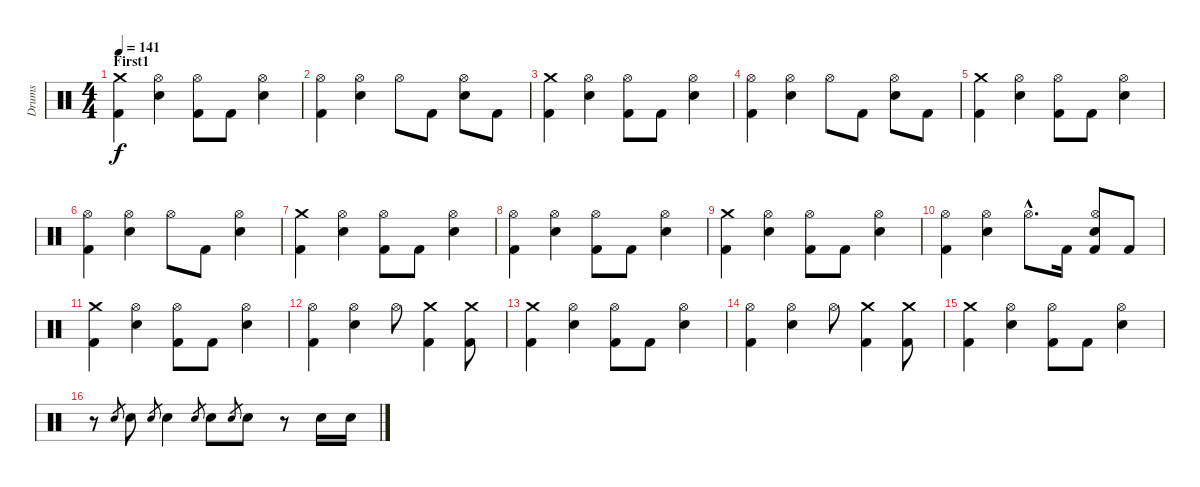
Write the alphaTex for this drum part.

\track ("Drums" "Drums") {instrument percussion}
\staff {score}
\articulation defaults
\ts (4 4)
\section ("" "First1")
\tempo 141
\clef neutral
\ks c
("Crash medium (hit)" "Kick (hit) 2").4{dy f} ("Hi-Hat (open)" "Electric Snare (hit)").4 ("Hi-Hat (open)" "Kick (hit) 2").8 "Kick (hit) 2".8 ("Hi-Hat (open)" "Electric Snare (hit)").4 |
("Hi-Hat (open)" "Kick (hit) 2").4 ("Hi-Hat (open)" "Electric Snare (hit)").4 "Hi-Hat (open)".8 "Kick (hit) 2".8 ("Hi-Hat (open)" "Electric Snare (hit)").8 "Kick (hit) 2".8 |
("Crash medium (hit)" "Kick (hit) 2").4 ("Hi-Hat (open)" "Electric Snare (hit)").4 ("Hi-Hat (open)" "Kick (hit) 2").8 "Kick (hit) 2".8 ("Hi-Hat (open)" "Electric Snare (hit)").4 |
("Hi-Hat (open)" "Kick (hit) 2").4 ("Hi-Hat (open)" "Electric Snare (hit)").4 "Hi-Hat (open)".8 "Kick (hit) 2".8 ("Hi-Hat (open)" "Electric Snare (hit)").8 "Kick (hit) 2".8 |
("Crash medium (hit)" "Kick (hit) 2").4 ("Hi-Hat (open)" "Electric Snare (hit)").4 ("Hi-Hat (open)" "Kick (hit) 2").8 "Kick (hit) 2".8 ("Hi-Hat (open)" "Electric Snare (hit)").4 |
("Hi-Hat (open)" "Kick (hit) 2").4 ("Hi-Hat (open)" "Electric Snare (hit)").4 "Hi-Hat (open)".8 "Kick (hit) 2".8 ("Hi-Hat (open)" "Electric Snare (hit)").4 |
("Crash medium (hit)" "Kick (hit) 2").4 ("Hi-Hat (open)" "Electric Snare (hit)").4 ("Hi-Hat (open)" "Kick (hit) 2").8 "Kick (hit) 2".8 ("Hi-Hat (open)" "Electric Snare (hit)").4 |
("Hi-Hat (open)" "Kick (hit) 2").4 ("Hi-Hat (open)" "Electric Snare (hit)").4 ("Hi-Hat (open)" "Kick (hit) 2").8 "Kick (hit) 2".8 ("Hi-Hat (open)" "Electric Snare (hit)").4 |
("Crash medium (hit)" "Kick (hit) 2").4 ("Hi-Hat (open)" "Electric Snare (hit)").4 ("Hi-Hat (open)" "Kick (hit) 2").8 "Kick (hit) 2".8 ("Hi-Hat (open)" "Electric Snare (hit)").4 |
("Hi-Hat (open)" "Kick (hit) 2").4 ("Hi-Hat (open)" "Electric Snare (hit)").4 "Hi-Hat (open)"{hac}.8{d} "Kick (hit) 2".16 ("Hi-Hat (open)" "Electric Snare (hit)" "Kick (hit) 2").8 "Kick (hit) 2".8 |
("Crash medium (hit)" "Kick (hit) 2").4 ("Hi-Hat (open)" "Electric Snare (hit)").4 ("Hi-Hat (open)" "Kick (hit) 2").8 "Kick (hit) 2".8 ("Hi-Hat (open)" "Electric Snare (hit)").4 |
("Hi-Hat (open)" "Kick (hit) 2").4 ("Hi-Hat (open)" "Electric Snare (hit)").4 "Hi-Hat (open)".8 ("Crash medium (hit)" "Kick (hit) 2").4 ("Crash medium (hit)" "Kick (hit) 2").8 |
("Crash medium (hit)" "Kick (hit) 2").4 ("Hi-Hat (open)" "Electric Snare (hit)").4 ("Hi-Hat (open)" "Kick (hit) 2").8 "Kick (hit) 2".8 ("Hi-Hat (open)" "Electric Snare (hit)").4 |
("Hi-Hat (open)" "Kick (hit) 2").4 ("Hi-Hat (open)" "Electric Snare (hit)").4 "Hi-Hat (open)".8 ("Crash medium (hit)" "Kick (hit) 2").4 ("Crash medium (hit)" "Kick (hit) 2").8 |
("Crash medium (hit)" "Kick (hit) 2").4 ("Hi-Hat (open)" "Electric Snare (hit)").4 ("Hi-Hat (open)" "Kick (hit) 2").8 "Kick (hit) 2".8 ("Hi-Hat (open)" "Electric Snare (hit)").4 |
r.8 "Electric Snare (hit)".8{gr} "Electric Snare (hit)".8 "Electric Snare (hit)".8{gr} "Electric Snare (hit)".4 "Electric Snare (hit)".8{gr} "Electric Snare (hit)".8 "Electric Snare (hit)".8{gr} "Electric Snare (hit)".8 r.8 "Electric Snare (hit)".16 "Electric Snare (hit)".16
